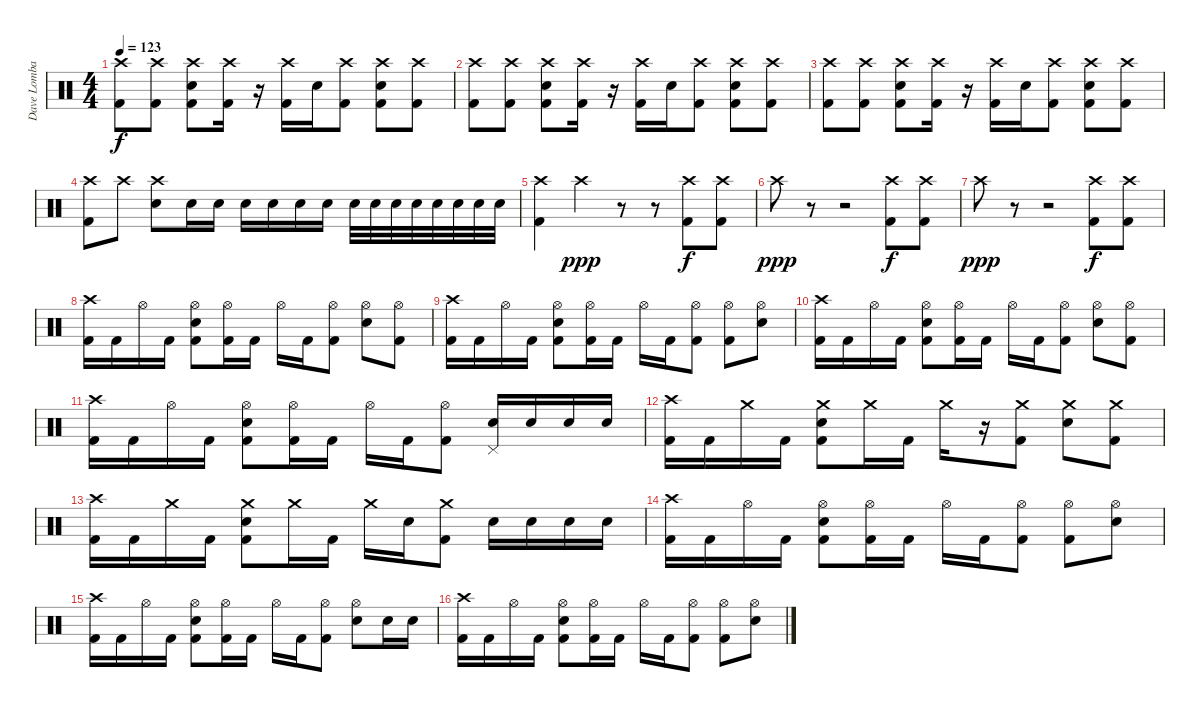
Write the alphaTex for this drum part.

\track ("Dave Lombardo" "Dave Lomba") {instrument percussion}
\staff {score}
\articulation defaults
\ts (4 4)
\tempo 123
\clef neutral
\ks c
("Crash high (hit)" "Kick (hit) 2").8{dy f} ("Crash high (hit)" "Kick (hit) 2").8 ("Crash high (hit)" "Electric Snare (hit)" "Kick (hit) 2").8 ("Crash high (hit)" "Kick (hit) 2").16 r.16 ("Crash high (hit)" "Kick (hit) 2").16 "Electric Snare (hit)".16 ("Crash high (hit)" "Kick (hit) 2").8 ("Crash high (hit)" "Electric Snare (hit)" "Kick (hit) 2").8 ("Crash high (hit)" "Kick (hit) 2").8 |
("Crash high (hit)" "Kick (hit) 2").8 ("Crash high (hit)" "Kick (hit) 2").8 ("Crash high (hit)" "Electric Snare (hit)" "Kick (hit) 2").8 ("Crash high (hit)" "Kick (hit) 2").16 r.16 ("Crash high (hit)" "Kick (hit) 2").16 "Electric Snare (hit)".16 ("Crash high (hit)" "Kick (hit) 2").8 ("Crash high (hit)" "Electric Snare (hit)" "Kick (hit) 2").8 ("Crash high (hit)" "Kick (hit) 2").8 |
("Crash high (hit)" "Kick (hit) 2").8 ("Crash high (hit)" "Kick (hit) 2").8 ("Crash high (hit)" "Electric Snare (hit)" "Kick (hit) 2").8 ("Crash high (hit)" "Kick (hit) 2").16 r.16 ("Crash high (hit)" "Kick (hit) 2").16 "Electric Snare (hit)".16 ("Crash high (hit)" "Kick (hit) 2").8 ("Crash high (hit)" "Electric Snare (hit)" "Kick (hit) 2").8 ("Crash high (hit)" "Kick (hit) 2").8 |
("Crash high (hit)" "Kick (hit) 2").8 "Crash high (hit)".8 ("Crash high (hit)" "Electric Snare (hit)").8 "Electric Snare (hit)".16 "Electric Snare (hit)".16 "Electric Snare (hit)".16 "Electric Snare (hit)".16 "Electric Snare (hit)".16 "Electric Snare (hit)".16 "Electric Snare (hit)".32 "Electric Snare (hit)".32 "Electric Snare (hit)".32 "Electric Snare (hit)".32 "Electric Snare (hit)".32 "Electric Snare (hit)".32 "Electric Snare (hit)".32 "Electric Snare (hit)".32 |
("Kick (hit) 2" "Crash high (hit)").4 "Crash high (hit)".4{dy ppp} r.8 r.8 ("Kick (hit) 2" "Crash high (hit)").8{dy f} ("Kick (hit) 2" "Crash high (hit)").8 |
"Crash high (hit)".8{dy ppp} r.8 r.2 ("Kick (hit) 2" "Crash high (hit)").8{dy f} ("Kick (hit) 2" "Crash high (hit)").8 |
"Crash high (hit)".8{dy ppp} r.8 r.2 ("Kick (hit) 2" "Crash high (hit)").8{dy f} ("Kick (hit) 2" "Crash high (hit)").8 |
("Crash high (hit)" "Kick (hit) 2").16 "Kick (hit) 2".16 "Hi-Hat (open)".16 "Kick (hit) 2".16 ("Hi-Hat (open)" "Electric Snare (hit)" "Kick (hit) 2").8 ("Hi-Hat (open)" "Kick (hit) 2").16 "Kick (hit) 2".16 "Hi-Hat (open)".16 "Kick (hit) 2".16 ("Hi-Hat (open)" "Kick (hit) 2").8 ("Hi-Hat (open)" "Electric Snare (hit)").8 ("Hi-Hat (open)" "Kick (hit) 2").8 |
("Crash high (hit)" "Kick (hit) 2").16 "Kick (hit) 2".16 "Hi-Hat (open)".16 "Kick (hit) 2".16 ("Hi-Hat (open)" "Electric Snare (hit)" "Kick (hit) 2").8 ("Hi-Hat (open)" "Kick (hit) 2").16 "Kick (hit) 2".16 "Hi-Hat (open)".16 "Kick (hit) 2".16 ("Hi-Hat (open)" "Kick (hit) 2").8 ("Hi-Hat (open)" "Kick (hit) 2").8 ("Hi-Hat (open)" "Electric Snare (hit)").8 |
("Crash high (hit)" "Kick (hit) 2").16 "Kick (hit) 2".16 "Hi-Hat (open)".16 "Kick (hit) 2".16 ("Hi-Hat (open)" "Electric Snare (hit)" "Kick (hit) 2").8 ("Hi-Hat (open)" "Kick (hit) 2").16 "Kick (hit) 2".16 "Hi-Hat (open)".16 "Kick (hit) 2".16 ("Hi-Hat (open)" "Kick (hit) 2").8 ("Hi-Hat (open)" "Electric Snare (hit)").8 ("Hi-Hat (open)" "Kick (hit) 2").8 |
("Crash high (hit)" "Kick (hit) 2").16 "Kick (hit) 2".16 "Hi-Hat (open)".16 "Kick (hit) 2".16 ("Hi-Hat (open)" "Electric Snare (hit)" "Kick (hit) 2").8 ("Hi-Hat (open)" "Kick (hit) 2").16 "Kick (hit) 2".16 "Hi-Hat (open)".16 "Kick (hit) 2".16 ("Hi-Hat (open)" "Kick (hit) 2").8 ("Pedal Hi-Hat (hit)" "Electric Snare (hit)").16 "Electric Snare (hit)".16 "Electric Snare (hit)".16 "Electric Snare (hit)".16 |
("Crash high (hit)" "Kick (hit) 2").16 "Kick (hit) 2".16 "Crash medium (hit)".16 "Kick (hit) 2".16 ("Crash medium (hit)" "Electric Snare (hit)" "Kick (hit) 2").8 "Crash medium (hit)".16 "Kick (hit) 2".16 "Crash medium (hit)".16 r.16 ("Crash medium (hit)" "Kick (hit) 2").8 ("Crash medium (hit)" "Electric Snare (hit)").8 ("Crash medium (hit)" "Kick (hit) 2").8 |
("Crash high (hit)" "Kick (hit) 2").16 "Kick (hit) 2".16 "Crash medium (hit)".16 "Kick (hit) 2".16 ("Crash medium (hit)" "Electric Snare (hit)" "Kick (hit) 2").8 "Crash medium (hit)".16 "Kick (hit) 2".16 "Crash medium (hit)".16 "Electric Snare (hit)".16 ("Crash medium (hit)" "Kick (hit) 2").8 "Electric Snare (hit)".16 "Electric Snare (hit)".16 "Electric Snare (hit)".16 "Electric Snare (hit)".16 |
("Crash high (hit)" "Kick (hit) 2").16 "Kick (hit) 2".16 "Hi-Hat (open)".16 "Kick (hit) 2".16 ("Hi-Hat (open)" "Electric Snare (hit)" "Kick (hit) 2").8 ("Hi-Hat (open)" "Kick (hit) 2").16 "Kick (hit) 2".16 "Hi-Hat (open)".16 "Kick (hit) 2".16 ("Hi-Hat (open)" "Kick (hit) 2").8 ("Hi-Hat (open)" "Kick (hit) 2").8 ("Hi-Hat (open)" "Electric Snare (hit)").8 |
("Crash high (hit)" "Kick (hit) 2").16 "Kick (hit) 2".16 "Hi-Hat (open)".16 "Kick (hit) 2".16 ("Hi-Hat (open)" "Electric Snare (hit)" "Kick (hit) 2").8 ("Hi-Hat (open)" "Kick (hit) 2").16 "Kick (hit) 2".16 "Hi-Hat (open)".16 "Kick (hit) 2".16 ("Hi-Hat (open)" "Kick (hit) 2").8 ("Hi-Hat (open)" "Electric Snare (hit)").8 "Electric Snare (hit)".16 "Electric Snare (hit)".16 |
("Crash high (hit)" "Kick (hit) 2").16 "Kick (hit) 2".16 "Hi-Hat (open)".16 "Kick (hit) 2".16 ("Hi-Hat (open)" "Electric Snare (hit)" "Kick (hit) 2").8 ("Hi-Hat (open)" "Kick (hit) 2").16 "Kick (hit) 2".16 "Hi-Hat (open)".16 "Kick (hit) 2".16 ("Hi-Hat (open)" "Kick (hit) 2").8 ("Hi-Hat (open)" "Kick (hit) 2").8 ("Hi-Hat (open)" "Electric Snare (hit)").8
